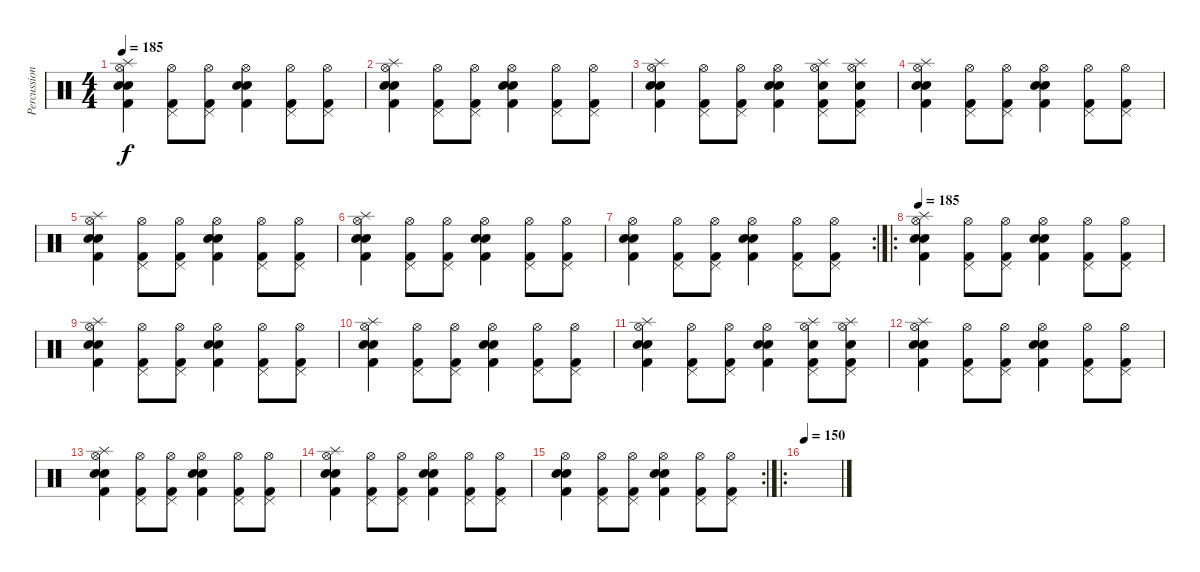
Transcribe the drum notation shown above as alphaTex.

\track ("Percussions" "Percussion") {instrument percussion}
\staff {score}
\articulation defaults
\ts (4 4)
\tempo 185
\clef neutral
\ks c
("Hi-Hat (open)" "Splash (hit)" "Kick (hit) 2" "Snare (hit) 2" "Electric Snare (hit)").4{dy f} ("Hi-Hat (open)" "Pedal Hi-Hat (hit)" "Kick (hit) 2").8 ("Hi-Hat (open)" "Pedal Hi-Hat (hit)" "Kick (hit) 2").8 ("Electric Snare (hit)" "Snare (hit) 2" "Hi-Hat (open)" "Kick (hit) 2").4 ("Hi-Hat (open)" "Pedal Hi-Hat (hit)" "Kick (hit) 2").8 ("Hi-Hat (open)" "Pedal Hi-Hat (hit)" "Kick (hit) 2").8 |
("Hi-Hat (open)" "Splash (hit)" "Kick (hit) 2" "Snare (hit) 2" "Electric Snare (hit)").4 ("Hi-Hat (open)" "Pedal Hi-Hat (hit)" "Kick (hit) 2").8 ("Hi-Hat (open)" "Pedal Hi-Hat (hit)" "Kick (hit) 2").8 ("Electric Snare (hit)" "Snare (hit) 2" "Hi-Hat (open)" "Kick (hit) 2").4 ("Hi-Hat (open)" "Pedal Hi-Hat (hit)" "Kick (hit) 2").8 ("Hi-Hat (open)" "Pedal Hi-Hat (hit)" "Kick (hit) 2").8 |
("Hi-Hat (open)" "Splash (hit)" "Kick (hit) 2" "Snare (hit) 2" "Electric Snare (hit)").4 ("Hi-Hat (open)" "Pedal Hi-Hat (hit)" "Kick (hit) 2").8 ("Hi-Hat (open)" "Pedal Hi-Hat (hit)" "Kick (hit) 2").8 ("Electric Snare (hit)" "Snare (hit) 2" "Hi-Hat (open)" "Kick (hit) 2").4 ("Hi-Hat (open)" "Splash (hit)" "Pedal Hi-Hat (hit)" "Kick (hit) 2" "Electric Snare (hit)").8 ("Splash (hit)" "Hi-Hat (open)" "Pedal Hi-Hat (hit)" "Kick (hit) 2" "Electric Snare (hit)").8 |
("Hi-Hat (open)" "Splash (hit)" "Kick (hit) 2" "Snare (hit) 2" "Electric Snare (hit)").4 ("Hi-Hat (open)" "Pedal Hi-Hat (hit)" "Kick (hit) 2").8 ("Hi-Hat (open)" "Pedal Hi-Hat (hit)" "Kick (hit) 2").8 ("Electric Snare (hit)" "Snare (hit) 2" "Hi-Hat (open)" "Kick (hit) 2").4 ("Hi-Hat (open)" "Pedal Hi-Hat (hit)" "Kick (hit) 2").8 ("Hi-Hat (open)" "Pedal Hi-Hat (hit)" "Kick (hit) 2").8 |
("Hi-Hat (open)" "Splash (hit)" "Kick (hit) 2" "Snare (hit) 2" "Electric Snare (hit)").4 ("Hi-Hat (open)" "Pedal Hi-Hat (hit)" "Kick (hit) 2").8 ("Hi-Hat (open)" "Pedal Hi-Hat (hit)" "Kick (hit) 2").8 ("Electric Snare (hit)" "Snare (hit) 2" "Hi-Hat (open)" "Kick (hit) 2").4 ("Hi-Hat (open)" "Pedal Hi-Hat (hit)" "Kick (hit) 2").8 ("Hi-Hat (open)" "Pedal Hi-Hat (hit)" "Kick (hit) 2").8 |
("Hi-Hat (open)" "Splash (hit)" "Kick (hit) 2" "Snare (hit) 2" "Electric Snare (hit)").4 ("Hi-Hat (open)" "Pedal Hi-Hat (hit)" "Kick (hit) 2").8 ("Hi-Hat (open)" "Pedal Hi-Hat (hit)" "Kick (hit) 2").8 ("Electric Snare (hit)" "Snare (hit) 2" "Hi-Hat (open)" "Kick (hit) 2").4 ("Hi-Hat (open)" "Pedal Hi-Hat (hit)" "Kick (hit) 2").8 ("Hi-Hat (open)" "Pedal Hi-Hat (hit)" "Kick (hit) 2").8 |
\rc 2
("Hi-Hat (open)" "Kick (hit) 2" "Snare (hit) 2" "Electric Snare (hit)").4 ("Hi-Hat (open)" "Pedal Hi-Hat (hit)" "Kick (hit) 2").8 ("Hi-Hat (open)" "Pedal Hi-Hat (hit)" "Kick (hit) 2").8 ("Electric Snare (hit)" "Snare (hit) 2" "Hi-Hat (open)" "Kick (hit) 2").4 ("Hi-Hat (open)" "Pedal Hi-Hat (hit)" "Kick (hit) 2").8 ("Hi-Hat (open)" "Pedal Hi-Hat (hit)" "Kick (hit) 2").8 |
\ro
\tempo 185
("Hi-Hat (open)" "Splash (hit)" "Kick (hit) 2" "Snare (hit) 2" "Electric Snare (hit)").4 ("Hi-Hat (open)" "Pedal Hi-Hat (hit)" "Kick (hit) 2").8 ("Hi-Hat (open)" "Pedal Hi-Hat (hit)" "Kick (hit) 2").8 ("Electric Snare (hit)" "Snare (hit) 2" "Hi-Hat (open)" "Kick (hit) 2").4 ("Hi-Hat (open)" "Pedal Hi-Hat (hit)" "Kick (hit) 2").8 ("Hi-Hat (open)" "Pedal Hi-Hat (hit)" "Kick (hit) 2").8 |
("Hi-Hat (open)" "Splash (hit)" "Kick (hit) 2" "Snare (hit) 2" "Electric Snare (hit)").4 ("Hi-Hat (open)" "Pedal Hi-Hat (hit)" "Kick (hit) 2").8 ("Hi-Hat (open)" "Pedal Hi-Hat (hit)" "Kick (hit) 2").8 ("Electric Snare (hit)" "Snare (hit) 2" "Hi-Hat (open)" "Kick (hit) 2").4 ("Hi-Hat (open)" "Pedal Hi-Hat (hit)" "Kick (hit) 2").8 ("Hi-Hat (open)" "Pedal Hi-Hat (hit)" "Kick (hit) 2").8 |
("Hi-Hat (open)" "Splash (hit)" "Kick (hit) 2" "Snare (hit) 2" "Electric Snare (hit)").4 ("Hi-Hat (open)" "Pedal Hi-Hat (hit)" "Kick (hit) 2").8 ("Hi-Hat (open)" "Pedal Hi-Hat (hit)" "Kick (hit) 2").8 ("Electric Snare (hit)" "Snare (hit) 2" "Hi-Hat (open)" "Kick (hit) 2").4 ("Hi-Hat (open)" "Pedal Hi-Hat (hit)" "Kick (hit) 2").8 ("Hi-Hat (open)" "Pedal Hi-Hat (hit)" "Kick (hit) 2").8 |
("Hi-Hat (open)" "Splash (hit)" "Kick (hit) 2" "Snare (hit) 2" "Electric Snare (hit)").4 ("Hi-Hat (open)" "Pedal Hi-Hat (hit)" "Kick (hit) 2").8 ("Hi-Hat (open)" "Pedal Hi-Hat (hit)" "Kick (hit) 2").8 ("Electric Snare (hit)" "Snare (hit) 2" "Hi-Hat (open)" "Kick (hit) 2").4 ("Hi-Hat (open)" "Splash (hit)" "Pedal Hi-Hat (hit)" "Kick (hit) 2" "Electric Snare (hit)").8 ("Splash (hit)" "Hi-Hat (open)" "Pedal Hi-Hat (hit)" "Kick (hit) 2" "Electric Snare (hit)").8 |
("Hi-Hat (open)" "Splash (hit)" "Kick (hit) 2" "Snare (hit) 2" "Electric Snare (hit)").4 ("Hi-Hat (open)" "Pedal Hi-Hat (hit)" "Kick (hit) 2").8 ("Hi-Hat (open)" "Pedal Hi-Hat (hit)" "Kick (hit) 2").8 ("Electric Snare (hit)" "Snare (hit) 2" "Hi-Hat (open)" "Kick (hit) 2").4 ("Hi-Hat (open)" "Pedal Hi-Hat (hit)" "Kick (hit) 2").8 ("Hi-Hat (open)" "Pedal Hi-Hat (hit)" "Kick (hit) 2").8 |
("Hi-Hat (open)" "Splash (hit)" "Kick (hit) 2" "Snare (hit) 2" "Electric Snare (hit)").4 ("Hi-Hat (open)" "Pedal Hi-Hat (hit)" "Kick (hit) 2").8 ("Hi-Hat (open)" "Pedal Hi-Hat (hit)" "Kick (hit) 2").8 ("Electric Snare (hit)" "Snare (hit) 2" "Hi-Hat (open)" "Kick (hit) 2").4 ("Hi-Hat (open)" "Pedal Hi-Hat (hit)" "Kick (hit) 2").8 ("Hi-Hat (open)" "Pedal Hi-Hat (hit)" "Kick (hit) 2").8 |
("Hi-Hat (open)" "Splash (hit)" "Kick (hit) 2" "Snare (hit) 2" "Electric Snare (hit)").4 ("Hi-Hat (open)" "Pedal Hi-Hat (hit)" "Kick (hit) 2").8 ("Hi-Hat (open)" "Pedal Hi-Hat (hit)" "Kick (hit) 2").8 ("Electric Snare (hit)" "Snare (hit) 2" "Hi-Hat (open)" "Kick (hit) 2").4 ("Hi-Hat (open)" "Pedal Hi-Hat (hit)" "Kick (hit) 2").8 ("Hi-Hat (open)" "Pedal Hi-Hat (hit)" "Kick (hit) 2").8 |
\rc 2
("Hi-Hat (open)" "Kick (hit) 2" "Snare (hit) 2" "Electric Snare (hit)").4 ("Hi-Hat (open)" "Pedal Hi-Hat (hit)" "Kick (hit) 2").8 ("Hi-Hat (open)" "Pedal Hi-Hat (hit)" "Kick (hit) 2").8 ("Electric Snare (hit)" "Snare (hit) 2" "Hi-Hat (open)" "Kick (hit) 2").4 ("Hi-Hat (open)" "Pedal Hi-Hat (hit)" "Kick (hit) 2").8 ("Hi-Hat (open)" "Pedal Hi-Hat (hit)" "Kick (hit) 2").8 |
\ro
\tempo 150
